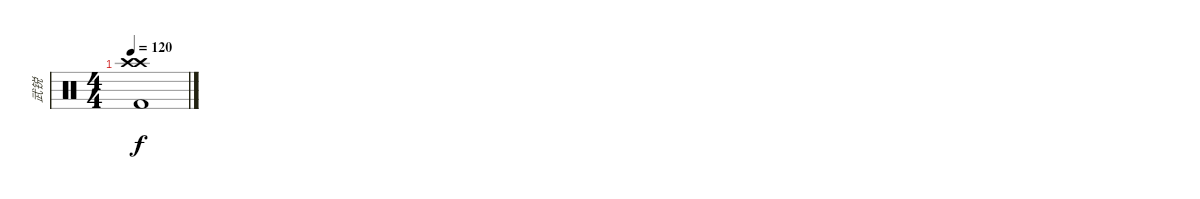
\track ("武锐" "武锐") {instrument percussion}
\staff {score}
\articulation defaults
\ts (4 4)
\tempo 120
\clef neutral
\ks c
("Kick (hit) 2" "Crash high (hit)" "Crash high (hit)").1{dy f}
